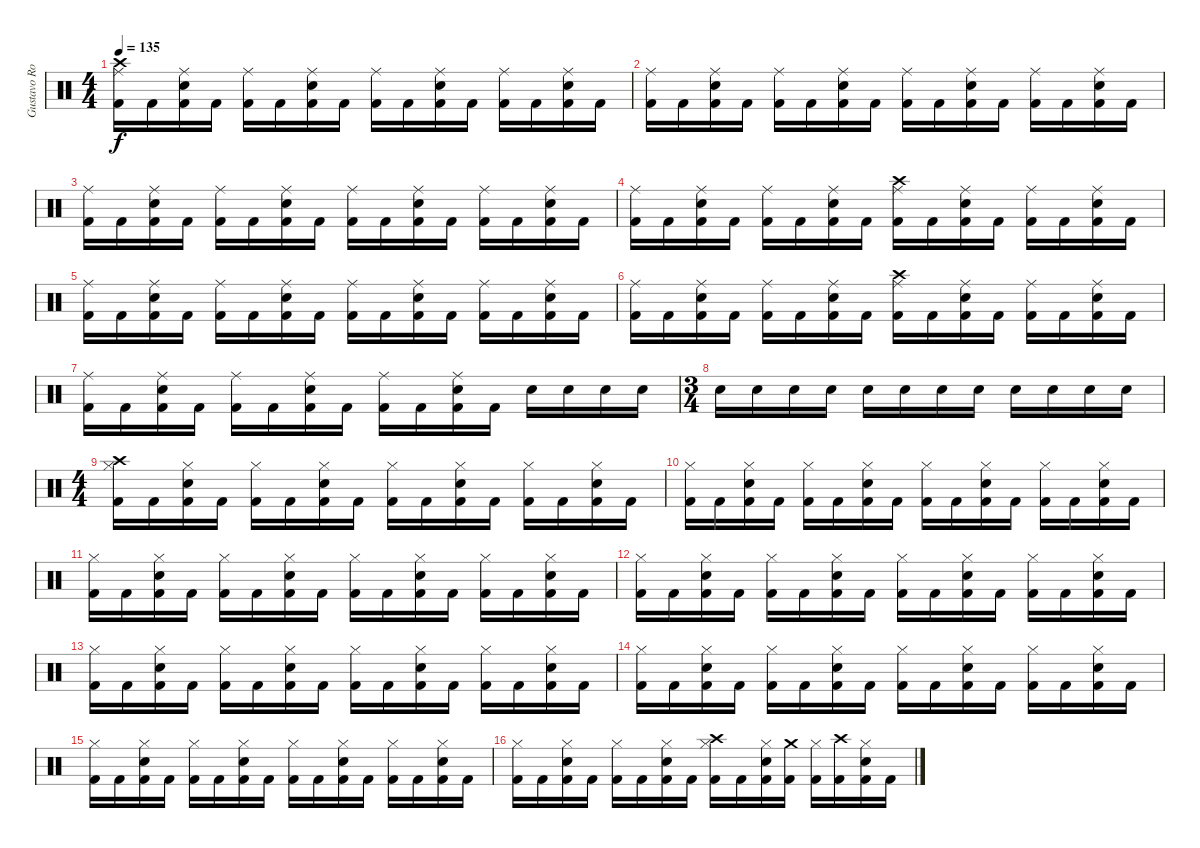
\track ("Gustavo Rowek" "Gustavo Ro") {instrument percussion}
\staff {score}
\articulation defaults
\ts (4 4)
\tempo 135
\clef neutral
\ks c
("Kick (hit) 2" "Ride (middle)" "Crash high (hit)").16{dy f} "Kick (hit) 2".16 ("Kick (hit) 2" "Ride (middle)" "Electric Snare (hit)").16 "Kick (hit) 2".16 ("Kick (hit) 2" "Ride (middle)").16 "Kick (hit) 2".16 ("Kick (hit) 2" "Ride (middle)" "Electric Snare (hit)").16 "Kick (hit) 2".16 ("Kick (hit) 2" "Ride (middle)").16 "Kick (hit) 2".16 ("Kick (hit) 2" "Ride (middle)" "Electric Snare (hit)").16 "Kick (hit) 2".16 ("Kick (hit) 2" "Ride (middle)").16 "Kick (hit) 2".16 ("Kick (hit) 2" "Ride (middle)" "Electric Snare (hit)").16 "Kick (hit) 2".16 |
("Kick (hit) 2" "Ride (middle)").16 "Kick (hit) 2".16 ("Kick (hit) 2" "Ride (middle)" "Electric Snare (hit)").16 "Kick (hit) 2".16 ("Kick (hit) 2" "Ride (middle)").16 "Kick (hit) 2".16 ("Kick (hit) 2" "Ride (middle)" "Electric Snare (hit)").16 "Kick (hit) 2".16 ("Kick (hit) 2" "Ride (middle)").16 "Kick (hit) 2".16 ("Kick (hit) 2" "Ride (middle)" "Electric Snare (hit)").16 "Kick (hit) 2".16 ("Kick (hit) 2" "Ride (middle)").16 "Kick (hit) 2".16 ("Kick (hit) 2" "Ride (middle)" "Electric Snare (hit)").16 "Kick (hit) 2".16 |
("Kick (hit) 2" "Ride (middle)").16 "Kick (hit) 2".16 ("Kick (hit) 2" "Ride (middle)" "Electric Snare (hit)").16 "Kick (hit) 2".16 ("Kick (hit) 2" "Ride (middle)").16 "Kick (hit) 2".16 ("Kick (hit) 2" "Ride (middle)" "Electric Snare (hit)").16 "Kick (hit) 2".16 ("Kick (hit) 2" "Ride (middle)").16 "Kick (hit) 2".16 ("Kick (hit) 2" "Ride (middle)" "Electric Snare (hit)").16 "Kick (hit) 2".16 ("Kick (hit) 2" "Ride (middle)").16 "Kick (hit) 2".16 ("Kick (hit) 2" "Ride (middle)" "Electric Snare (hit)").16 "Kick (hit) 2".16 |
("Kick (hit) 2" "Ride (middle)").16 "Kick (hit) 2".16 ("Kick (hit) 2" "Ride (middle)" "Electric Snare (hit)").16 "Kick (hit) 2".16 ("Kick (hit) 2" "Ride (middle)").16 "Kick (hit) 2".16 ("Kick (hit) 2" "Ride (middle)" "Electric Snare (hit)").16 "Kick (hit) 2".16 ("Kick (hit) 2" "Ride (middle)" "Crash high (hit)").16 "Kick (hit) 2".16 ("Kick (hit) 2" "Ride (middle)" "Electric Snare (hit)").16 "Kick (hit) 2".16 ("Kick (hit) 2" "Ride (middle)").16 "Kick (hit) 2".16 ("Kick (hit) 2" "Ride (middle)" "Electric Snare (hit)").16 "Kick (hit) 2".16 |
("Kick (hit) 2" "Ride (middle)").16 "Kick (hit) 2".16 ("Kick (hit) 2" "Ride (middle)" "Electric Snare (hit)").16 "Kick (hit) 2".16 ("Kick (hit) 2" "Ride (middle)").16 "Kick (hit) 2".16 ("Kick (hit) 2" "Ride (middle)" "Electric Snare (hit)").16 "Kick (hit) 2".16 ("Kick (hit) 2" "Ride (middle)").16 "Kick (hit) 2".16 ("Kick (hit) 2" "Ride (middle)" "Electric Snare (hit)").16 "Kick (hit) 2".16 ("Kick (hit) 2" "Ride (middle)").16 "Kick (hit) 2".16 ("Kick (hit) 2" "Ride (middle)" "Electric Snare (hit)").16 "Kick (hit) 2".16 |
("Kick (hit) 2" "Ride (middle)").16 "Kick (hit) 2".16 ("Kick (hit) 2" "Ride (middle)" "Electric Snare (hit)").16 "Kick (hit) 2".16 ("Kick (hit) 2" "Ride (middle)").16 "Kick (hit) 2".16 ("Kick (hit) 2" "Ride (middle)" "Electric Snare (hit)").16 "Kick (hit) 2".16 ("Kick (hit) 2" "Ride (middle)" "Crash high (hit)").16 "Kick (hit) 2".16 ("Kick (hit) 2" "Ride (middle)" "Electric Snare (hit)").16 "Kick (hit) 2".16 ("Kick (hit) 2" "Ride (middle)").16 "Kick (hit) 2".16 ("Kick (hit) 2" "Ride (middle)" "Electric Snare (hit)").16 "Kick (hit) 2".16 |
("Kick (hit) 2" "Ride (middle)").16 "Kick (hit) 2".16 ("Kick (hit) 2" "Ride (middle)" "Electric Snare (hit)").16 "Kick (hit) 2".16 ("Kick (hit) 2" "Ride (middle)").16 "Kick (hit) 2".16 ("Kick (hit) 2" "Ride (middle)" "Electric Snare (hit)").16 "Kick (hit) 2".16 ("Kick (hit) 2" "Ride (middle)").16 "Kick (hit) 2".16 ("Kick (hit) 2" "Ride (middle)" "Electric Snare (hit)").16 "Kick (hit) 2".16 "Electric Snare (hit)".16 "Electric Snare (hit)".16 "Electric Snare (hit)".16 "Electric Snare (hit)".16 |
\ts (3 4)
"Electric Snare (hit)".16 "Electric Snare (hit)".16 "Electric Snare (hit)".16 "Electric Snare (hit)".16 "Electric Snare (hit)".16 "Electric Snare (hit)".16 "Electric Snare (hit)".16 "Electric Snare (hit)".16 "Electric Snare (hit)".16 "Electric Snare (hit)".16 "Electric Snare (hit)".16 "Electric Snare (hit)".16 |
\ts (4 4)
("Kick (hit) 2" "Hi-Hat (closed)" "Crash high (hit)").16 "Kick (hit) 2".16 ("Kick (hit) 2" "Hi-Hat (closed)" "Electric Snare (hit)").16 "Kick (hit) 2".16 ("Kick (hit) 2" "Hi-Hat (closed)").16 "Kick (hit) 2".16 ("Kick (hit) 2" "Hi-Hat (closed)" "Electric Snare (hit)").16 "Kick (hit) 2".16 ("Kick (hit) 2" "Hi-Hat (closed)").16 "Kick (hit) 2".16 ("Kick (hit) 2" "Hi-Hat (closed)" "Electric Snare (hit)").16 "Kick (hit) 2".16 ("Kick (hit) 2" "Hi-Hat (closed)").16 "Kick (hit) 2".16 ("Kick (hit) 2" "Hi-Hat (closed)" "Electric Snare (hit)").16 "Kick (hit) 2".16 |
("Kick (hit) 2" "Hi-Hat (closed)").16 "Kick (hit) 2".16 ("Kick (hit) 2" "Hi-Hat (closed)" "Electric Snare (hit)").16 "Kick (hit) 2".16 ("Kick (hit) 2" "Hi-Hat (closed)").16 "Kick (hit) 2".16 ("Kick (hit) 2" "Hi-Hat (closed)" "Electric Snare (hit)").16 "Kick (hit) 2".16 ("Kick (hit) 2" "Hi-Hat (closed)").16 "Kick (hit) 2".16 ("Kick (hit) 2" "Hi-Hat (closed)" "Electric Snare (hit)").16 "Kick (hit) 2".16 ("Kick (hit) 2" "Hi-Hat (closed)").16 "Kick (hit) 2".16 ("Kick (hit) 2" "Hi-Hat (closed)" "Electric Snare (hit)").16 "Kick (hit) 2".16 |
("Kick (hit) 2" "Hi-Hat (closed)").16 "Kick (hit) 2".16 ("Kick (hit) 2" "Hi-Hat (closed)" "Electric Snare (hit)").16 "Kick (hit) 2".16 ("Kick (hit) 2" "Hi-Hat (closed)").16 "Kick (hit) 2".16 ("Kick (hit) 2" "Hi-Hat (closed)" "Electric Snare (hit)").16 "Kick (hit) 2".16 ("Kick (hit) 2" "Hi-Hat (closed)").16 "Kick (hit) 2".16 ("Kick (hit) 2" "Hi-Hat (closed)" "Electric Snare (hit)").16 "Kick (hit) 2".16 ("Kick (hit) 2" "Hi-Hat (closed)").16 "Kick (hit) 2".16 ("Kick (hit) 2" "Hi-Hat (closed)" "Electric Snare (hit)").16 "Kick (hit) 2".16 |
("Kick (hit) 2" "Hi-Hat (closed)").16 "Kick (hit) 2".16 ("Kick (hit) 2" "Hi-Hat (closed)" "Electric Snare (hit)").16 "Kick (hit) 2".16 ("Kick (hit) 2" "Hi-Hat (closed)").16 "Kick (hit) 2".16 ("Kick (hit) 2" "Hi-Hat (closed)" "Electric Snare (hit)").16 "Kick (hit) 2".16 ("Kick (hit) 2" "Hi-Hat (closed)").16 "Kick (hit) 2".16 ("Kick (hit) 2" "Hi-Hat (closed)" "Electric Snare (hit)").16 "Kick (hit) 2".16 ("Kick (hit) 2" "Hi-Hat (closed)").16 "Kick (hit) 2".16 ("Kick (hit) 2" "Hi-Hat (closed)" "Electric Snare (hit)").16 "Kick (hit) 2".16 |
("Kick (hit) 2" "Hi-Hat (closed)").16 "Kick (hit) 2".16 ("Kick (hit) 2" "Hi-Hat (closed)" "Electric Snare (hit)").16 "Kick (hit) 2".16 ("Kick (hit) 2" "Hi-Hat (closed)").16 "Kick (hit) 2".16 ("Kick (hit) 2" "Hi-Hat (closed)" "Electric Snare (hit)").16 "Kick (hit) 2".16 ("Kick (hit) 2" "Hi-Hat (closed)").16 "Kick (hit) 2".16 ("Kick (hit) 2" "Hi-Hat (closed)" "Electric Snare (hit)").16 "Kick (hit) 2".16 ("Kick (hit) 2" "Hi-Hat (closed)").16 "Kick (hit) 2".16 ("Kick (hit) 2" "Hi-Hat (closed)" "Electric Snare (hit)").16 "Kick (hit) 2".16 |
("Kick (hit) 2" "Hi-Hat (closed)").16 "Kick (hit) 2".16 ("Kick (hit) 2" "Hi-Hat (closed)" "Electric Snare (hit)").16 "Kick (hit) 2".16 ("Kick (hit) 2" "Hi-Hat (closed)").16 "Kick (hit) 2".16 ("Kick (hit) 2" "Hi-Hat (closed)" "Electric Snare (hit)").16 "Kick (hit) 2".16 ("Kick (hit) 2" "Hi-Hat (closed)").16 "Kick (hit) 2".16 ("Kick (hit) 2" "Hi-Hat (closed)" "Electric Snare (hit)").16 "Kick (hit) 2".16 ("Kick (hit) 2" "Hi-Hat (closed)").16 "Kick (hit) 2".16 ("Kick (hit) 2" "Hi-Hat (closed)" "Electric Snare (hit)").16 "Kick (hit) 2".16 |
("Kick (hit) 2" "Hi-Hat (closed)").16 "Kick (hit) 2".16 ("Kick (hit) 2" "Hi-Hat (closed)" "Electric Snare (hit)").16 "Kick (hit) 2".16 ("Kick (hit) 2" "Hi-Hat (closed)").16 "Kick (hit) 2".16 ("Kick (hit) 2" "Hi-Hat (closed)" "Electric Snare (hit)").16 "Kick (hit) 2".16 ("Kick (hit) 2" "Hi-Hat (closed)").16 "Kick (hit) 2".16 ("Kick (hit) 2" "Hi-Hat (closed)" "Electric Snare (hit)").16 "Kick (hit) 2".16 ("Kick (hit) 2" "Hi-Hat (closed)").16 "Kick (hit) 2".16 ("Kick (hit) 2" "Hi-Hat (closed)" "Electric Snare (hit)").16 "Kick (hit) 2".16 |
("Kick (hit) 2" "Hi-Hat (closed)").16 "Kick (hit) 2".16 ("Kick (hit) 2" "Hi-Hat (closed)" "Electric Snare (hit)").16 "Kick (hit) 2".16 ("Kick (hit) 2" "Hi-Hat (closed)").16 "Kick (hit) 2".16 ("Kick (hit) 2" "Hi-Hat (closed)" "Electric Snare (hit)").16 "Kick (hit) 2".16 ("Kick (hit) 2" "Hi-Hat (closed)" "Crash high (hit)").16 "Kick (hit) 2".16 ("Kick (hit) 2" "Hi-Hat (closed)" "Electric Snare (hit)").16 ("Kick (hit) 2" "Crash medium (hit)").16 ("Kick (hit) 2" "Hi-Hat (closed)").16 ("Kick (hit) 2" "Crash high (hit)").16 ("Kick (hit) 2" "Hi-Hat (closed)" "Electric Snare (hit)").16 "Kick (hit) 2".16
